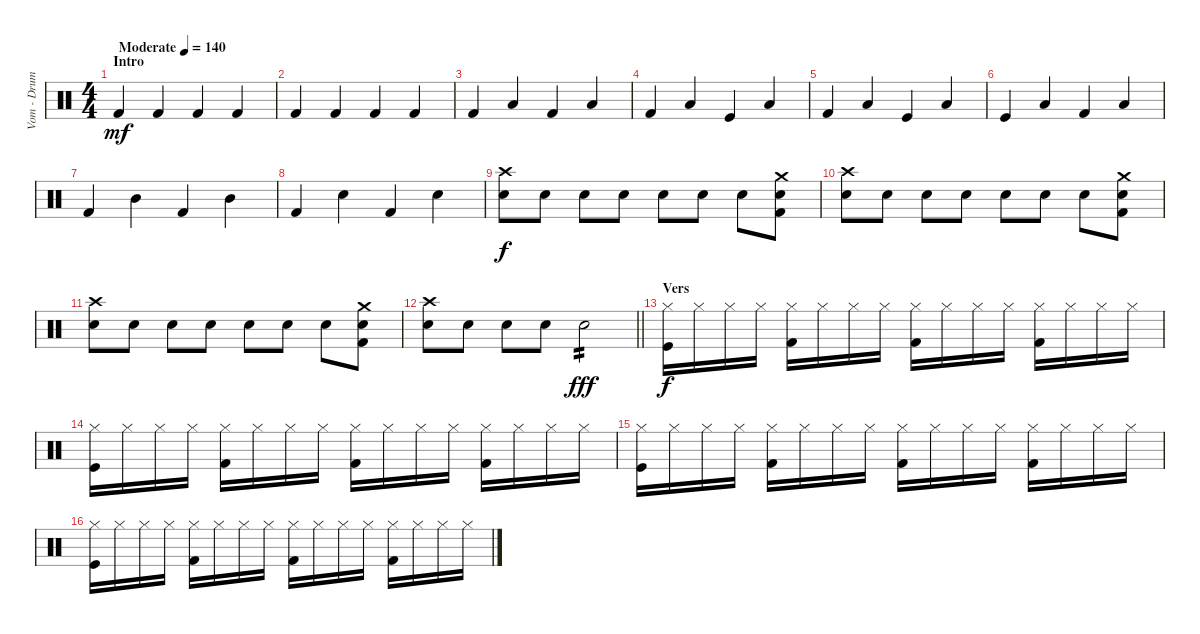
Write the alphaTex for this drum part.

\track ("Vom - Drums" "Vom - Drum") {instrument percussion}
\staff {score}
\articulation defaults
\ts (4 4)
\section ("" "Intro")
\tempo (140 "Moderate")
\clef neutral
\ks c "Kick (hit) 2".4{dy mf} "Kick (hit) 2".4 "Kick (hit) 2".4 "Kick (hit) 2".4
|
"Kick (hit) 2".4 "Kick (hit) 2".4 "Kick (hit) 2".4 "Kick (hit) 2".4 |
"Kick (hit) 2".4 "Low Floor Tom (hit)".4 "Kick (hit) 2".4 "Low Floor Tom (hit)".4 |
"Kick (hit) 2".4 "Low Floor Tom (hit)".4 "Kick (hit)".4 "Low Floor Tom (hit)".4 |
"Kick (hit) 2".4 "Low Tom (hit)".4 "Kick (hit)".4 "Low Tom (hit)".4 |
"Kick (hit)".4 "Low Tom (hit)".4 "Kick (hit) 2".4 "Low Tom (hit)".4 |
"Kick (hit) 2".4 "Mid Tom (hit)".4 "Kick (hit) 2".4 "Mid Tom (hit)".4 |
"Kick (hit) 2".4 "Snare (hit) 2".4 "Kick (hit) 2".4 "Snare (hit) 2".4 |
("Crash high (hit)" "Snare (hit) 2").8{dy f} "Snare (hit) 2".8 "Snare (hit) 2".8 "Snare (hit) 2".8 "Snare (hit) 2".8 "Snare (hit) 2".8 "Snare (hit) 2".8 ("Crash medium (hit)" "Snare (hit) 2" "Kick (hit) 2").8 |
("Crash high (hit)" "Snare (hit) 2").8 "Snare (hit) 2".8 "Snare (hit) 2".8 "Snare (hit) 2".8 "Snare (hit) 2".8 "Snare (hit) 2".8 "Snare (hit) 2".8 ("Crash medium (hit)" "Snare (hit) 2" "Kick (hit) 2").8 |
("Crash high (hit)" "Snare (hit) 2").8 "Snare (hit) 2".8 "Snare (hit) 2".8 "Snare (hit) 2".8 "Snare (hit) 2".8 "Snare (hit) 2".8 "Snare (hit) 2".8 ("Crash medium (hit)" "Snare (hit) 2" "Kick (hit) 2").8 |
\barLineRight lightlight
("Crash high (hit)" "Snare (hit) 2").8 "Snare (hit) 2".8 "Snare (hit) 2".8 "Snare (hit) 2".8 "Snare (hit) 2".2{tp 2 dy fff} |
\section ("" "Vers")
("Hi-Hat (closed)" "Kick (hit)").16{dy f} "Hi-Hat (closed)".16 "Hi-Hat (closed)".16 "Hi-Hat (closed)".16 ("Hi-Hat (closed)" "Kick (hit) 2").16 "Hi-Hat (closed)".16 "Hi-Hat (closed)".16 "Hi-Hat (closed)".16 ("Hi-Hat (closed)" "Kick (hit) 2").16 "Hi-Hat (closed)".16 "Hi-Hat (closed)".16 "Hi-Hat (closed)".16 ("Hi-Hat (closed)" "Kick (hit) 2").16 "Hi-Hat (closed)".16 "Hi-Hat (closed)".16 "Hi-Hat (closed)".16 |
("Hi-Hat (closed)" "Kick (hit)").16 "Hi-Hat (closed)".16 "Hi-Hat (closed)".16 "Hi-Hat (closed)".16 ("Hi-Hat (closed)" "Kick (hit) 2").16 "Hi-Hat (closed)".16 "Hi-Hat (closed)".16 "Hi-Hat (closed)".16 ("Hi-Hat (closed)" "Kick (hit) 2").16 "Hi-Hat (closed)".16 "Hi-Hat (closed)".16 "Hi-Hat (closed)".16 ("Hi-Hat (closed)" "Kick (hit) 2").16 "Hi-Hat (closed)".16 "Hi-Hat (closed)".16 "Hi-Hat (closed)".16 |
("Hi-Hat (closed)" "Kick (hit)").16 "Hi-Hat (closed)".16 "Hi-Hat (closed)".16 "Hi-Hat (closed)".16 ("Hi-Hat (closed)" "Kick (hit) 2").16 "Hi-Hat (closed)".16 "Hi-Hat (closed)".16 "Hi-Hat (closed)".16 ("Hi-Hat (closed)" "Kick (hit) 2").16 "Hi-Hat (closed)".16 "Hi-Hat (closed)".16 "Hi-Hat (closed)".16 ("Hi-Hat (closed)" "Kick (hit) 2").16 "Hi-Hat (closed)".16 "Hi-Hat (closed)".16 "Hi-Hat (closed)".16 |
("Hi-Hat (closed)" "Kick (hit)").16 "Hi-Hat (closed)".16 "Hi-Hat (closed)".16 "Hi-Hat (closed)".16 ("Hi-Hat (closed)" "Kick (hit) 2").16 "Hi-Hat (closed)".16 "Hi-Hat (closed)".16 "Hi-Hat (closed)".16 ("Hi-Hat (closed)" "Kick (hit) 2").16 "Hi-Hat (closed)".16 "Hi-Hat (closed)".16 "Hi-Hat (closed)".16 ("Hi-Hat (closed)" "Kick (hit) 2").16 "Hi-Hat (closed)".16 "Hi-Hat (closed)".16 "Hi-Hat (closed)".16
